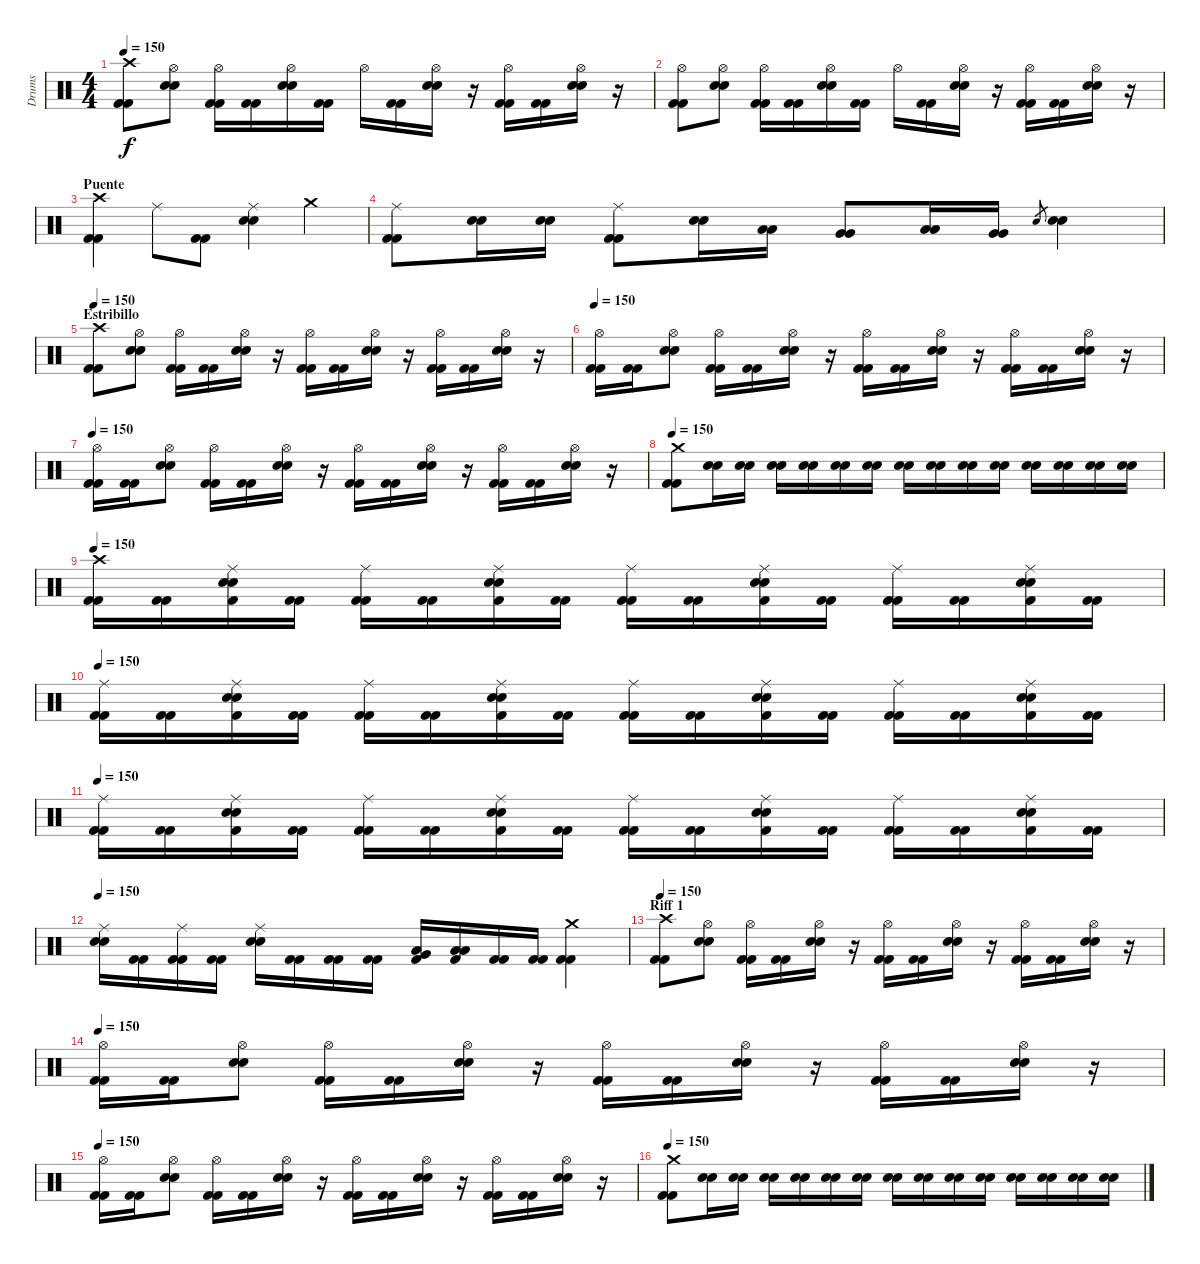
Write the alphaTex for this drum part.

\track ("Drums" "Drums") {instrument percussion}
\staff {score}
\articulation defaults
\ts (4 4)
\tempo 150
\clef neutral
\ks c
("Crash high (hit)" "Kick (hit) 2" "Kick (hit) 2").8{dy f} ("Hi-Hat (open)" "Snare (hit) 2" "Snare (hit) 2").8 ("Hi-Hat (open)" "Kick (hit) 2" "Kick (hit) 2").16 ("Kick (hit) 2" "Kick (hit) 2").16 ("Hi-Hat (open)" "Snare (hit) 2" "Snare (hit) 2").16 ("Kick (hit) 2" "Kick (hit) 2").16 "Hi-Hat (open)".16 ("Kick (hit) 2" "Kick (hit) 2").16 ("Hi-Hat (open)" "Snare (hit) 2" "Snare (hit) 2").16 r.16 ("Hi-Hat (open)" "Kick (hit) 2" "Kick (hit) 2").16 ("Kick (hit) 2" "Kick (hit) 2").16 ("Hi-Hat (open)" "Snare (hit) 2" "Snare (hit) 2").16 r.16 |
("Hi-Hat (open)" "Kick (hit) 2" "Kick (hit) 2").8 ("Hi-Hat (open)" "Snare (hit) 2" "Snare (hit) 2").8 ("Hi-Hat (open)" "Kick (hit) 2" "Kick (hit) 2").16 ("Kick (hit) 2" "Kick (hit) 2").16 ("Hi-Hat (open)" "Snare (hit) 2" "Snare (hit) 2").16 ("Kick (hit) 2" "Kick (hit) 2").16 "Hi-Hat (open)".16 ("Kick (hit) 2" "Kick (hit) 2").16 ("Hi-Hat (open)" "Snare (hit) 2" "Snare (hit) 2").16 r.16 ("Hi-Hat (open)" "Kick (hit) 2" "Kick (hit) 2").16 ("Kick (hit) 2" "Kick (hit) 2").16 ("Hi-Hat (open)" "Snare (hit) 2" "Snare (hit) 2").16 r.16 |
\section ("" "Puente")
("Crash high (hit)" "Kick (hit) 2" "Kick (hit) 2").4 "Ride (middle)".8 ("Kick (hit) 2" "Kick (hit) 2").8 ("Ride (middle)" "Snare (hit) 2" "Snare (hit) 2").4 "Crash medium (hit)".4 |
("Ride (middle)" "Kick (hit) 2" "Kick (hit) 2").8 ("Snare (hit) 2" "Snare (hit) 2").16 ("Snare (hit) 2" "Snare (hit) 2").16 ("Ride (middle)" "Kick (hit) 2" "Kick (hit) 2").8 ("Snare (hit) 2" "Snare (hit) 2").16 ("Low Tom (hit)" "Low Tom (hit)").16 ("Very Low Tom (hit)" "Very Low Tom (hit)").8 ("Low Tom (hit)" "Low Tom (hit)").16 ("Very Low Tom (hit)" "Very Low Tom (hit)").16 "Snare (hit) 2".8{gr} ("Snare (hit) 2" "Snare (hit) 2").4 |
\section ("" "Estribillo")
\tempo 150
("Crash high (hit)" "Kick (hit) 2" "Kick (hit) 2").8 ("Hi-Hat (open)" "Snare (hit) 2" "Snare (hit) 2").8 ("Hi-Hat (open)" "Kick (hit) 2" "Kick (hit) 2").16 ("Kick (hit) 2" "Kick (hit) 2").16 ("Hi-Hat (open)" "Snare (hit) 2" "Snare (hit) 2").16 r.16 ("Hi-Hat (open)" "Kick (hit) 2" "Kick (hit) 2").16 ("Kick (hit) 2" "Kick (hit) 2").16 ("Hi-Hat (open)" "Snare (hit) 2" "Snare (hit) 2").16 r.16 ("Hi-Hat (open)" "Kick (hit) 2" "Kick (hit) 2").16 ("Kick (hit) 2" "Kick (hit) 2").16 ("Hi-Hat (open)" "Snare (hit) 2" "Snare (hit) 2").16 r.16 |
\tempo 150
("Hi-Hat (open)" "Kick (hit) 2" "Kick (hit) 2").16 ("Kick (hit) 2" "Kick (hit) 2").16 ("Hi-Hat (open)" "Snare (hit) 2" "Snare (hit) 2").8 ("Hi-Hat (open)" "Kick (hit) 2" "Kick (hit) 2").16 ("Kick (hit) 2" "Kick (hit) 2").16 ("Hi-Hat (open)" "Snare (hit) 2" "Snare (hit) 2").16 r.16 ("Hi-Hat (open)" "Kick (hit) 2" "Kick (hit) 2").16 ("Kick (hit) 2" "Kick (hit) 2").16 ("Hi-Hat (open)" "Snare (hit) 2" "Snare (hit) 2").16 r.16 ("Hi-Hat (open)" "Kick (hit) 2" "Kick (hit) 2").16 ("Kick (hit) 2" "Kick (hit) 2").16 ("Hi-Hat (open)" "Snare (hit) 2" "Snare (hit) 2").16 r.16 |
\tempo 150
("Hi-Hat (open)" "Kick (hit) 2" "Kick (hit) 2").16 ("Kick (hit) 2" "Kick (hit) 2").16 ("Hi-Hat (open)" "Snare (hit) 2" "Snare (hit) 2").8 ("Hi-Hat (open)" "Kick (hit) 2" "Kick (hit) 2").16 ("Kick (hit) 2" "Kick (hit) 2").16 ("Hi-Hat (open)" "Snare (hit) 2" "Snare (hit) 2").16 r.16 ("Hi-Hat (open)" "Kick (hit) 2" "Kick (hit) 2").16 ("Kick (hit) 2" "Kick (hit) 2").16 ("Hi-Hat (open)" "Snare (hit) 2" "Snare (hit) 2").16 r.16 ("Hi-Hat (open)" "Kick (hit) 2" "Kick (hit) 2").16 ("Kick (hit) 2" "Kick (hit) 2").16 ("Hi-Hat (open)" "Snare (hit) 2" "Snare (hit) 2").16 r.16 |
\tempo 150
("Crash medium (hit)" "Kick (hit) 2" "Kick (hit) 2").8 ("Snare (hit) 2" "Snare (hit) 2").16 ("Snare (hit) 2" "Snare (hit) 2").16 ("Snare (hit) 2" "Snare (hit) 2").16 ("Snare (hit) 2" "Snare (hit) 2").16 ("Snare (hit) 2" "Snare (hit) 2").16 ("Snare (hit) 2" "Snare (hit) 2").16 ("Snare (hit) 2" "Snare (hit) 2").16 ("Snare (hit) 2" "Snare (hit) 2").16 ("Snare (hit) 2" "Snare (hit) 2").16 ("Snare (hit) 2" "Snare (hit) 2").16 ("Snare (hit) 2" "Snare (hit) 2").16 ("Snare (hit) 2" "Snare (hit) 2").16 ("Snare (hit) 2" "Snare (hit) 2").16 ("Snare (hit) 2" "Snare (hit) 2").16 |
\tempo 150
("Crash high (hit)" "Kick (hit) 2" "Kick (hit) 2").16 ("Kick (hit) 2" "Kick (hit) 2").16 ("Ride (middle)" "Snare (hit) 2" "Snare (hit) 2" "Kick (hit) 2").16 ("Kick (hit) 2" "Kick (hit) 2").16 ("Ride (middle)" "Kick (hit) 2" "Kick (hit) 2").16 ("Kick (hit) 2" "Kick (hit) 2").16 ("Ride (middle)" "Snare (hit) 2" "Snare (hit) 2" "Kick (hit) 2").16 ("Kick (hit) 2" "Kick (hit) 2").16 ("Ride (middle)" "Kick (hit) 2" "Kick (hit) 2").16 ("Kick (hit) 2" "Kick (hit) 2").16 ("Ride (middle)" "Snare (hit) 2" "Snare (hit) 2" "Kick (hit) 2").16 ("Kick (hit) 2" "Kick (hit) 2").16 ("Ride (middle)" "Kick (hit) 2" "Kick (hit) 2").16 ("Kick (hit) 2" "Kick (hit) 2").16 ("Ride (middle)" "Snare (hit) 2" "Snare (hit) 2" "Kick (hit) 2").16 ("Kick (hit) 2" "Kick (hit) 2").16 |
\tempo 150
("Ride (middle)" "Kick (hit) 2" "Kick (hit) 2").16 ("Kick (hit) 2" "Kick (hit) 2").16 ("Ride (middle)" "Snare (hit) 2" "Snare (hit) 2" "Kick (hit) 2").16 ("Kick (hit) 2" "Kick (hit) 2").16 ("Ride (middle)" "Kick (hit) 2" "Kick (hit) 2").16 ("Kick (hit) 2" "Kick (hit) 2").16 ("Ride (middle)" "Snare (hit) 2" "Snare (hit) 2" "Kick (hit) 2").16 ("Kick (hit) 2" "Kick (hit) 2").16 ("Ride (middle)" "Kick (hit) 2" "Kick (hit) 2").16 ("Kick (hit) 2" "Kick (hit) 2").16 ("Ride (middle)" "Snare (hit) 2" "Snare (hit) 2" "Kick (hit) 2").16 ("Kick (hit) 2" "Kick (hit) 2").16 ("Ride (middle)" "Kick (hit) 2" "Kick (hit) 2").16 ("Kick (hit) 2" "Kick (hit) 2").16 ("Ride (middle)" "Snare (hit) 2" "Snare (hit) 2" "Kick (hit) 2").16 ("Kick (hit) 2" "Kick (hit) 2").16 |
\tempo 150
("Ride (middle)" "Kick (hit) 2" "Kick (hit) 2").16 ("Kick (hit) 2" "Kick (hit) 2").16 ("Ride (middle)" "Snare (hit) 2" "Snare (hit) 2" "Kick (hit) 2").16 ("Kick (hit) 2" "Kick (hit) 2").16 ("Ride (middle)" "Kick (hit) 2" "Kick (hit) 2").16 ("Kick (hit) 2" "Kick (hit) 2").16 ("Ride (middle)" "Snare (hit) 2" "Snare (hit) 2" "Kick (hit) 2").16 ("Kick (hit) 2" "Kick (hit) 2").16 ("Ride (middle)" "Kick (hit) 2" "Kick (hit) 2").16 ("Kick (hit) 2" "Kick (hit) 2").16 ("Ride (middle)" "Snare (hit) 2" "Snare (hit) 2" "Kick (hit) 2").16 ("Kick (hit) 2" "Kick (hit) 2").16 ("Ride (middle)" "Kick (hit) 2" "Kick (hit) 2").16 ("Kick (hit) 2" "Kick (hit) 2").16 ("Ride (middle)" "Snare (hit) 2" "Snare (hit) 2" "Kick (hit) 2").16 ("Kick (hit) 2" "Kick (hit) 2").16 |
\tempo 150
("Ride (middle)" "Snare (hit) 2" "Snare (hit) 2").16 ("Kick (hit) 2" "Kick (hit) 2").16 ("Ride (middle)" "Kick (hit) 2" "Kick (hit) 2").16 ("Kick (hit) 2" "Kick (hit) 2").16 ("Ride (middle)" "Snare (hit) 2" "Snare (hit) 2").16 ("Kick (hit) 2" "Kick (hit) 2").16 ("Kick (hit) 2" "Kick (hit) 2").16 ("Kick (hit) 2" "Kick (hit) 2").16 ("Very Low Tom (hit)" "Low Tom (hit)" "Kick (hit) 2").16 ("Low Tom (hit)" "Low Tom (hit)" "Kick (hit) 2").16 ("Kick (hit) 2" "Kick (hit) 2").16 ("Kick (hit) 2" "Kick (hit) 2").16 ("Crash medium (hit)" "Kick (hit) 2" "Kick (hit) 2").4 |
\section ("" "Riff 1")
\tempo 150
("Crash high (hit)" "Kick (hit) 2" "Kick (hit) 2").8 ("Hi-Hat (open)" "Snare (hit) 2" "Snare (hit) 2").8 ("Hi-Hat (open)" "Kick (hit) 2" "Kick (hit) 2").16 ("Kick (hit) 2" "Kick (hit) 2").16 ("Hi-Hat (open)" "Snare (hit) 2" "Snare (hit) 2").16 r.16 ("Hi-Hat (open)" "Kick (hit) 2" "Kick (hit) 2").16 ("Kick (hit) 2" "Kick (hit) 2").16 ("Hi-Hat (open)" "Snare (hit) 2" "Snare (hit) 2").16 r.16 ("Hi-Hat (open)" "Kick (hit) 2" "Kick (hit) 2").16 ("Kick (hit) 2" "Kick (hit) 2").16 ("Hi-Hat (open)" "Snare (hit) 2" "Snare (hit) 2").16 r.16 |
\tempo 150
("Hi-Hat (open)" "Kick (hit) 2" "Kick (hit) 2").16 ("Kick (hit) 2" "Kick (hit) 2").16 ("Hi-Hat (open)" "Snare (hit) 2" "Snare (hit) 2").8 ("Hi-Hat (open)" "Kick (hit) 2" "Kick (hit) 2").16 ("Kick (hit) 2" "Kick (hit) 2").16 ("Hi-Hat (open)" "Snare (hit) 2" "Snare (hit) 2").16 r.16 ("Hi-Hat (open)" "Kick (hit) 2" "Kick (hit) 2").16 ("Kick (hit) 2" "Kick (hit) 2").16 ("Hi-Hat (open)" "Snare (hit) 2" "Snare (hit) 2").16 r.16 ("Hi-Hat (open)" "Kick (hit) 2" "Kick (hit) 2").16 ("Kick (hit) 2" "Kick (hit) 2").16 ("Hi-Hat (open)" "Snare (hit) 2" "Snare (hit) 2").16 r.16 |
\tempo 150
("Hi-Hat (open)" "Kick (hit) 2" "Kick (hit) 2").16 ("Kick (hit) 2" "Kick (hit) 2").16 ("Hi-Hat (open)" "Snare (hit) 2" "Snare (hit) 2").8 ("Hi-Hat (open)" "Kick (hit) 2" "Kick (hit) 2").16 ("Kick (hit) 2" "Kick (hit) 2").16 ("Hi-Hat (open)" "Snare (hit) 2" "Snare (hit) 2").16 r.16 ("Hi-Hat (open)" "Kick (hit) 2" "Kick (hit) 2").16 ("Kick (hit) 2" "Kick (hit) 2").16 ("Hi-Hat (open)" "Snare (hit) 2" "Snare (hit) 2").16 r.16 ("Hi-Hat (open)" "Kick (hit) 2" "Kick (hit) 2").16 ("Kick (hit) 2" "Kick (hit) 2").16 ("Hi-Hat (open)" "Snare (hit) 2" "Snare (hit) 2").16 r.16 |
\tempo 150
("Crash medium (hit)" "Kick (hit) 2" "Kick (hit) 2").8 ("Snare (hit) 2" "Snare (hit) 2").16 ("Snare (hit) 2" "Snare (hit) 2").16 ("Snare (hit) 2" "Snare (hit) 2").16 ("Snare (hit) 2" "Snare (hit) 2").16 ("Snare (hit) 2" "Snare (hit) 2").16 ("Snare (hit) 2" "Snare (hit) 2").16 ("Snare (hit) 2" "Snare (hit) 2").16 ("Snare (hit) 2" "Snare (hit) 2").16 ("Snare (hit) 2" "Snare (hit) 2").16 ("Snare (hit) 2" "Snare (hit) 2").16 ("Snare (hit) 2" "Snare (hit) 2").16 ("Snare (hit) 2" "Snare (hit) 2").16 ("Snare (hit) 2" "Snare (hit) 2").16 ("Snare (hit) 2" "Snare (hit) 2").16
